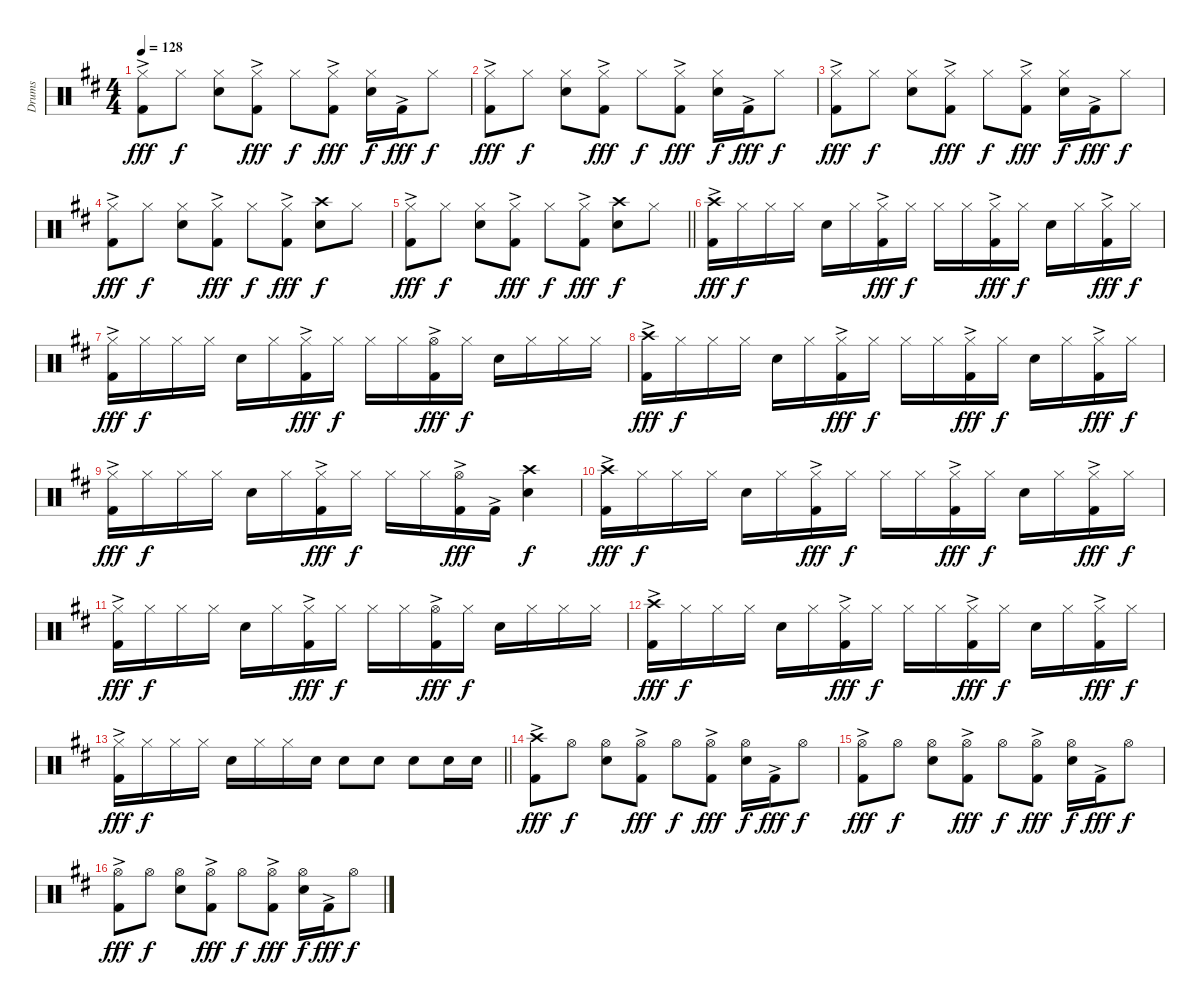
\track ("Drums" "Drums") {instrument percussion}
\staff {score}
\articulation defaults
\ts (4 4)
\tempo 128
\clef neutral
\ks d
("Hi-Hat (closed)" "Kick (hit) 2"{ac}).8{dy fff} "Hi-Hat (closed)".8{dy f} ("Hi-Hat (closed)" "Snare (hit) 2").8 ("Hi-Hat (closed)" "Kick (hit) 2"{ac}).8{dy fff} "Hi-Hat (closed)".8{dy f} ("Hi-Hat (closed)" "Kick (hit) 2"{ac}).8{dy fff} ("Hi-Hat (closed)" "Snare (hit) 2").16{dy f} "Kick (hit) 2"{ac}.16{dy fff} "Hi-Hat (closed)".8{dy f} |
("Hi-Hat (closed)" "Kick (hit) 2"{ac}).8{dy fff} "Hi-Hat (closed)".8{dy f} ("Hi-Hat (closed)" "Snare (hit) 2").8 ("Hi-Hat (closed)" "Kick (hit) 2"{ac}).8{dy fff} "Hi-Hat (closed)".8{dy f} ("Hi-Hat (closed)" "Kick (hit) 2"{ac}).8{dy fff} ("Hi-Hat (closed)" "Snare (hit) 2").16{dy f} "Kick (hit) 2"{ac}.16{dy fff} "Hi-Hat (closed)".8{dy f} |
("Hi-Hat (closed)" "Kick (hit) 2"{ac}).8{dy fff} "Hi-Hat (closed)".8{dy f} ("Hi-Hat (closed)" "Snare (hit) 2").8 ("Hi-Hat (closed)" "Kick (hit) 2"{ac}).8{dy fff} "Hi-Hat (closed)".8{dy f} ("Hi-Hat (closed)" "Kick (hit) 2"{ac}).8{dy fff} ("Hi-Hat (closed)" "Snare (hit) 2").16{dy f} "Kick (hit) 2"{ac}.16{dy fff} "Hi-Hat (closed)".8{dy f} |
("Hi-Hat (closed)" "Kick (hit) 2"{ac}).8{dy fff} "Hi-Hat (closed)".8{dy f} ("Hi-Hat (closed)" "Snare (hit) 2").8 ("Hi-Hat (closed)" "Kick (hit) 2"{ac}).8{dy fff} "Hi-Hat (closed)".8{dy f} ("Hi-Hat (closed)" "Kick (hit) 2"{ac}).8{dy fff} ("Crash high (hit)" "Snare (hit) 2").8{dy f} "Hi-Hat (closed)".8 |
\barLineRight lightlight
("Hi-Hat (closed)" "Kick (hit) 2"{ac}).8{dy fff} "Hi-Hat (closed)".8{dy f} ("Hi-Hat (closed)" "Snare (hit) 2").8 ("Hi-Hat (closed)" "Kick (hit) 2"{ac}).8{dy fff} "Hi-Hat (closed)".8{dy f} ("Hi-Hat (closed)" "Kick (hit) 2"{ac}).8{dy fff} ("Crash high (hit)" "Snare (hit) 2").8{dy f} "Hi-Hat (closed)".8 |
("Crash high (hit)" "Kick (hit) 2"{ac}).16{dy fff} "Hi-Hat (closed)".16{dy f} "Hi-Hat (closed)".16 "Hi-Hat (closed)".16 "Snare (hit) 2".16 "Hi-Hat (closed)".16 ("Hi-Hat (closed)" "Kick (hit) 2"{ac}).16{dy fff} "Hi-Hat (closed)".16{dy f} "Hi-Hat (closed)".16 "Hi-Hat (closed)".16 ("Hi-Hat (closed)" "Kick (hit) 2"{ac}).16{dy fff} "Hi-Hat (closed)".16{dy f} "Snare (hit) 2".16 "Hi-Hat (closed)".16 ("Hi-Hat (closed)" "Kick (hit) 2"{ac}).16{dy fff} "Hi-Hat (closed)".16{dy f} |
("Hi-Hat (closed)" "Kick (hit) 2"{ac}).16{dy fff} "Hi-Hat (closed)".16{dy f} "Hi-Hat (closed)".16 "Hi-Hat (closed)".16 "Snare (hit) 2".16 "Hi-Hat (closed)".16 ("Hi-Hat (closed)" "Kick (hit) 2"{ac}).16{dy fff} "Hi-Hat (closed)".16{dy f} "Hi-Hat (closed)".16 "Hi-Hat (closed)".16 ("Hi-Hat (open)" "Kick (hit) 2"{ac}).16{dy fff} "Hi-Hat (closed)".16{dy f} "Snare (hit) 2".16 "Hi-Hat (closed)".16 "Hi-Hat (closed)".16 "Hi-Hat (closed)".16 |
("Crash high (hit)" "Kick (hit) 2"{ac}).16{dy fff} "Hi-Hat (closed)".16{dy f} "Hi-Hat (closed)".16 "Hi-Hat (closed)".16 "Snare (hit) 2".16 "Hi-Hat (closed)".16 ("Hi-Hat (closed)" "Kick (hit) 2"{ac}).16{dy fff} "Hi-Hat (closed)".16{dy f} "Hi-Hat (closed)".16 "Hi-Hat (closed)".16 ("Hi-Hat (closed)" "Kick (hit) 2"{ac}).16{dy fff} "Hi-Hat (closed)".16{dy f} "Snare (hit) 2".16 "Hi-Hat (closed)".16 ("Hi-Hat (closed)" "Kick (hit) 2"{ac}).16{dy fff} "Hi-Hat (closed)".16{dy f} |
("Hi-Hat (closed)" "Kick (hit) 2"{ac}).16{dy fff} "Hi-Hat (closed)".16{dy f} "Hi-Hat (closed)".16 "Hi-Hat (closed)".16 "Snare (hit) 2".16 "Hi-Hat (closed)".16 ("Hi-Hat (closed)" "Kick (hit) 2"{ac}).16{dy fff} "Hi-Hat (closed)".16{dy f} "Hi-Hat (closed)".16 "Hi-Hat (closed)".16 ("Hi-Hat (open)" "Kick (hit) 2"{ac}).16{dy fff} "Kick (hit) 2"{ac}.16 ("Crash high (hit)" "Snare (hit) 2").4{dy f} |
("Crash high (hit)" "Kick (hit) 2"{ac}).16{dy fff} "Hi-Hat (closed)".16{dy f} "Hi-Hat (closed)".16 "Hi-Hat (closed)".16 "Snare (hit) 2".16 "Hi-Hat (closed)".16 ("Hi-Hat (closed)" "Kick (hit) 2"{ac}).16{dy fff} "Hi-Hat (closed)".16{dy f} "Hi-Hat (closed)".16 "Hi-Hat (closed)".16 ("Hi-Hat (closed)" "Kick (hit) 2"{ac}).16{dy fff} "Hi-Hat (closed)".16{dy f} "Snare (hit) 2".16 "Hi-Hat (closed)".16 ("Hi-Hat (closed)" "Kick (hit) 2"{ac}).16{dy fff} "Hi-Hat (closed)".16{dy f} |
("Hi-Hat (closed)" "Kick (hit) 2"{ac}).16{dy fff} "Hi-Hat (closed)".16{dy f} "Hi-Hat (closed)".16 "Hi-Hat (closed)".16 "Snare (hit) 2".16 "Hi-Hat (closed)".16 ("Hi-Hat (closed)" "Kick (hit) 2"{ac}).16{dy fff} "Hi-Hat (closed)".16{dy f} "Hi-Hat (closed)".16 "Hi-Hat (closed)".16 ("Hi-Hat (open)" "Kick (hit) 2"{ac}).16{dy fff} "Hi-Hat (closed)".16{dy f} "Snare (hit) 2".16 "Hi-Hat (closed)".16 "Hi-Hat (closed)".16 "Hi-Hat (closed)".16 |
("Crash high (hit)" "Kick (hit) 2"{ac}).16{dy fff} "Hi-Hat (closed)".16{dy f} "Hi-Hat (closed)".16 "Hi-Hat (closed)".16 "Snare (hit) 2".16 "Hi-Hat (closed)".16 ("Hi-Hat (closed)" "Kick (hit) 2"{ac}).16{dy fff} "Hi-Hat (closed)".16{dy f} "Hi-Hat (closed)".16 "Hi-Hat (closed)".16 ("Hi-Hat (closed)" "Kick (hit) 2"{ac}).16{dy fff} "Hi-Hat (closed)".16{dy f} "Snare (hit) 2".16 "Hi-Hat (closed)".16 ("Hi-Hat (closed)" "Kick (hit) 2"{ac}).16{dy fff} "Hi-Hat (closed)".16{dy f} |
\barLineRight lightlight
("Hi-Hat (closed)" "Kick (hit) 2"{ac}).16{dy fff} "Hi-Hat (closed)".16{dy f} "Hi-Hat (closed)".16 "Hi-Hat (closed)".16 "Snare (hit) 2".16 "Hi-Hat (closed)".16 "Hi-Hat (closed)".16 "Snare (hit) 2".16 "Snare (hit) 2".8 "Snare (hit) 2".8 "Snare (hit) 2".8 "Snare (hit) 2".16 "Snare (hit) 2".16 |
("Crash high (hit)" "Kick (hit) 2"{ac}).8{dy fff} "Hi-Hat (open)".8{dy f} ("Hi-Hat (open)" "Snare (hit) 2").8 ("Hi-Hat (open)" "Kick (hit) 2"{ac}).8{dy fff} "Hi-Hat (open)".8{dy f} ("Hi-Hat (open)" "Kick (hit) 2"{ac}).8{dy fff} ("Hi-Hat (open)" "Snare (hit) 2").16{dy f} "Kick (hit) 2"{ac}.16{dy fff} "Hi-Hat (open)".8{dy f} |
("Hi-Hat (open)" "Kick (hit) 2"{ac}).8{dy fff} "Hi-Hat (open)".8{dy f} ("Hi-Hat (open)" "Snare (hit) 2").8 ("Hi-Hat (open)" "Kick (hit) 2"{ac}).8{dy fff} "Hi-Hat (open)".8{dy f} ("Hi-Hat (open)" "Kick (hit) 2"{ac}).8{dy fff} ("Hi-Hat (open)" "Snare (hit) 2").16{dy f} "Kick (hit) 2"{ac}.16{dy fff} "Hi-Hat (open)".8{dy f} |
("Hi-Hat (open)" "Kick (hit) 2"{ac}).8{dy fff} "Hi-Hat (open)".8{dy f} ("Hi-Hat (open)" "Snare (hit) 2").8 ("Hi-Hat (open)" "Kick (hit) 2"{ac}).8{dy fff} "Hi-Hat (open)".8{dy f} ("Hi-Hat (open)" "Kick (hit) 2"{ac}).8{dy fff} ("Hi-Hat (open)" "Snare (hit) 2").16{dy f} "Kick (hit) 2"{ac}.16{dy fff} "Hi-Hat (open)".8{dy f}
